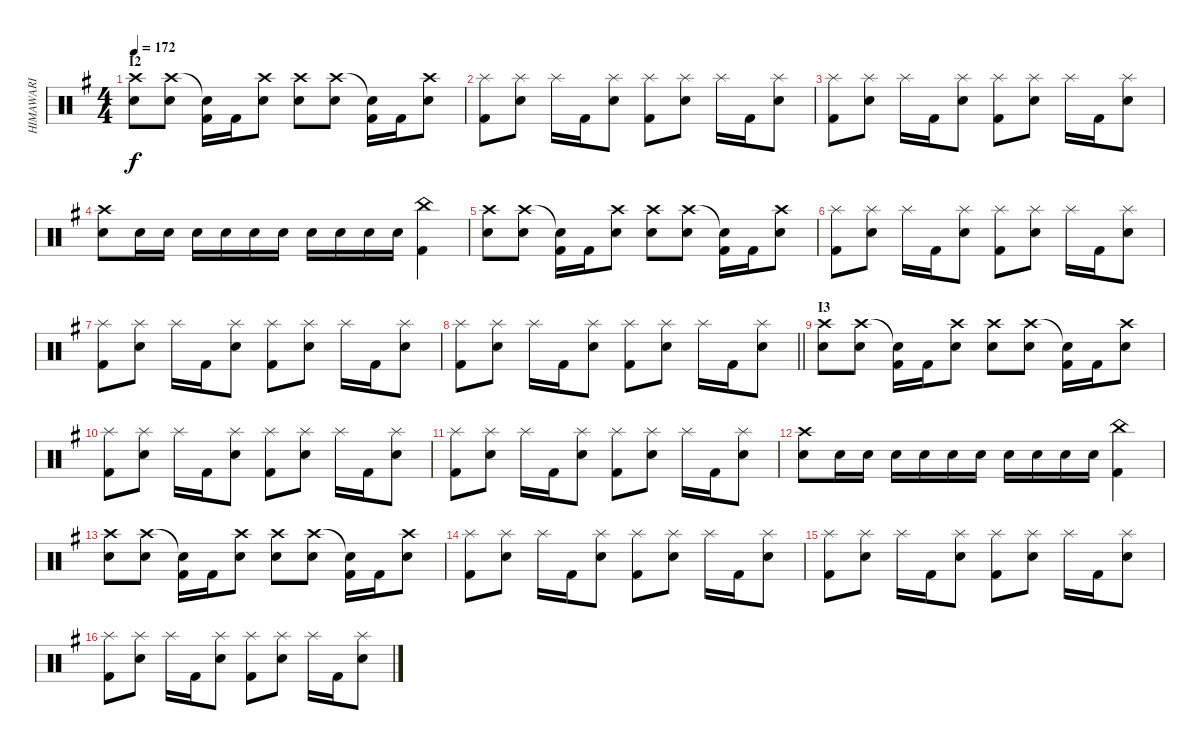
\track ("HIMAWARI" "HIMAWARI") {instrument percussion}
\staff {score}
\articulation defaults
\ts (4 4)
\section ("" "I2")
\tempo 172
\clef neutral
\ks g
("Crash high (hit)" "Snare (hit) 2").8{dy f} ("Crash high (hit)" "Snare (hit) 2").8 ("Snare (hit)"{t} "Kick (hit) 2").16 "Kick (hit) 2".16 ("Crash high (hit)" "Snare (hit) 2").8 ("Crash high (hit)" "Snare (hit) 2").8 ("Crash high (hit)" "Snare (hit) 2").8 ("Snare (hit)"{t} "Kick (hit) 2").16 "Kick (hit) 2".16 ("Crash high (hit)" "Snare (hit) 2").8 |
("Splash (hit)" "Kick (hit) 2").8 ("Splash (hit)" "Snare (hit) 2").8 "Splash (hit)".16 "Kick (hit) 2".16 ("Splash (hit)" "Snare (hit) 2").8 ("Splash (hit)" "Kick (hit) 2").8 ("Splash (hit)" "Snare (hit) 2").8 "Splash (hit)".16 "Kick (hit) 2".16 ("Splash (hit)" "Snare (hit) 2").8 |
("Splash (hit)" "Kick (hit) 2").8 ("Splash (hit)" "Snare (hit) 2").8 "Splash (hit)".16 "Kick (hit) 2".16 ("Splash (hit)" "Snare (hit) 2").8 ("Splash (hit)" "Kick (hit) 2").8 ("Splash (hit)" "Snare (hit) 2").8 "Splash (hit)".16 "Kick (hit) 2".16 ("Splash (hit)" "Snare (hit) 2").8 |
("Crash high (hit)" "Snare (hit) 2").8 "Snare (hit) 2".16 "Snare (hit) 2".16 "Snare (hit) 2".16 "Snare (hit) 2".16 "Snare (hit) 2".16 "Snare (hit) 2".16 "Snare (hit) 2".16 "Snare (hit) 2".16 "Snare (hit) 2".16 "Snare (hit) 2".16 ("China (hit)" "Kick (hit) 2").4 |
("Crash high (hit)" "Snare (hit) 2").8 ("Crash high (hit)" "Snare (hit) 2").8 ("Snare (hit)"{t} "Kick (hit) 2").16 "Kick (hit) 2".16 ("Crash high (hit)" "Snare (hit) 2").8 ("Crash high (hit)" "Snare (hit) 2").8 ("Crash high (hit)" "Snare (hit) 2").8 ("Snare (hit)"{t} "Kick (hit) 2").16 "Kick (hit) 2".16 ("Crash high (hit)" "Snare (hit) 2").8 |
("Splash (hit)" "Kick (hit) 2").8 ("Splash (hit)" "Snare (hit) 2").8 "Splash (hit)".16 "Kick (hit) 2".16 ("Splash (hit)" "Snare (hit) 2").8 ("Splash (hit)" "Kick (hit) 2").8 ("Splash (hit)" "Snare (hit) 2").8 "Splash (hit)".16 "Kick (hit) 2".16 ("Splash (hit)" "Snare (hit) 2").8 |
("Splash (hit)" "Kick (hit) 2").8 ("Splash (hit)" "Snare (hit) 2").8 "Splash (hit)".16 "Kick (hit) 2".16 ("Splash (hit)" "Snare (hit) 2").8 ("Splash (hit)" "Kick (hit) 2").8 ("Splash (hit)" "Snare (hit) 2").8 "Splash (hit)".16 "Kick (hit) 2".16 ("Splash (hit)" "Snare (hit) 2").8 |
\barLineRight lightlight
("Splash (hit)" "Kick (hit) 2").8 ("Splash (hit)" "Snare (hit) 2").8 "Splash (hit)".16 "Kick (hit) 2".16 ("Splash (hit)" "Snare (hit) 2").8 ("Splash (hit)" "Kick (hit) 2").8 ("Splash (hit)" "Snare (hit) 2").8 "Splash (hit)".16 "Kick (hit) 2".16 ("Splash (hit)" "Snare (hit) 2").8 |
\section ("" "I3")
("Crash high (hit)" "Snare (hit) 2").8 ("Crash high (hit)" "Snare (hit) 2").8 ("Snare (hit)"{t} "Kick (hit) 2").16 "Kick (hit) 2".16 ("Crash high (hit)" "Snare (hit) 2").8 ("Crash high (hit)" "Snare (hit) 2").8 ("Crash high (hit)" "Snare (hit) 2").8 ("Snare (hit)"{t} "Kick (hit) 2").16 "Kick (hit) 2".16 ("Crash high (hit)" "Snare (hit) 2").8 |
("Splash (hit)" "Kick (hit) 2").8 ("Splash (hit)" "Snare (hit) 2").8 "Splash (hit)".16 "Kick (hit) 2".16 ("Splash (hit)" "Snare (hit) 2").8 ("Splash (hit)" "Kick (hit) 2").8 ("Splash (hit)" "Snare (hit) 2").8 "Splash (hit)".16 "Kick (hit) 2".16 ("Splash (hit)" "Snare (hit) 2").8 |
("Splash (hit)" "Kick (hit) 2").8 ("Splash (hit)" "Snare (hit) 2").8 "Splash (hit)".16 "Kick (hit) 2".16 ("Splash (hit)" "Snare (hit) 2").8 ("Splash (hit)" "Kick (hit) 2").8 ("Splash (hit)" "Snare (hit) 2").8 "Splash (hit)".16 "Kick (hit) 2".16 ("Splash (hit)" "Snare (hit) 2").8 |
("Crash high (hit)" "Snare (hit) 2").8 "Snare (hit) 2".16 "Snare (hit) 2".16 "Snare (hit) 2".16 "Snare (hit) 2".16 "Snare (hit) 2".16 "Snare (hit) 2".16 "Snare (hit) 2".16 "Snare (hit) 2".16 "Snare (hit) 2".16 "Snare (hit) 2".16 ("China (hit)" "Kick (hit) 2").4 |
("Crash high (hit)" "Snare (hit) 2").8 ("Crash high (hit)" "Snare (hit) 2").8 ("Snare (hit)"{t} "Kick (hit) 2").16 "Kick (hit) 2".16 ("Crash high (hit)" "Snare (hit) 2").8 ("Crash high (hit)" "Snare (hit) 2").8 ("Crash high (hit)" "Snare (hit) 2").8 ("Snare (hit)"{t} "Kick (hit) 2").16 "Kick (hit) 2".16 ("Crash high (hit)" "Snare (hit) 2").8 |
("Splash (hit)" "Kick (hit) 2").8 ("Splash (hit)" "Snare (hit) 2").8 "Splash (hit)".16 "Kick (hit) 2".16 ("Splash (hit)" "Snare (hit) 2").8 ("Splash (hit)" "Kick (hit) 2").8 ("Splash (hit)" "Snare (hit) 2").8 "Splash (hit)".16 "Kick (hit) 2".16 ("Splash (hit)" "Snare (hit) 2").8 |
("Splash (hit)" "Kick (hit) 2").8 ("Splash (hit)" "Snare (hit) 2").8 "Splash (hit)".16 "Kick (hit) 2".16 ("Splash (hit)" "Snare (hit) 2").8 ("Splash (hit)" "Kick (hit) 2").8 ("Splash (hit)" "Snare (hit) 2").8 "Splash (hit)".16 "Kick (hit) 2".16 ("Splash (hit)" "Snare (hit) 2").8 |
("Splash (hit)" "Kick (hit) 2").8 ("Splash (hit)" "Snare (hit) 2").8 "Splash (hit)".16 "Kick (hit) 2".16 ("Splash (hit)" "Snare (hit) 2").8 ("Splash (hit)" "Kick (hit) 2").8 ("Splash (hit)" "Snare (hit) 2").8 "Splash (hit)".16 "Kick (hit) 2".16 ("Splash (hit)" "Snare (hit) 2").8
